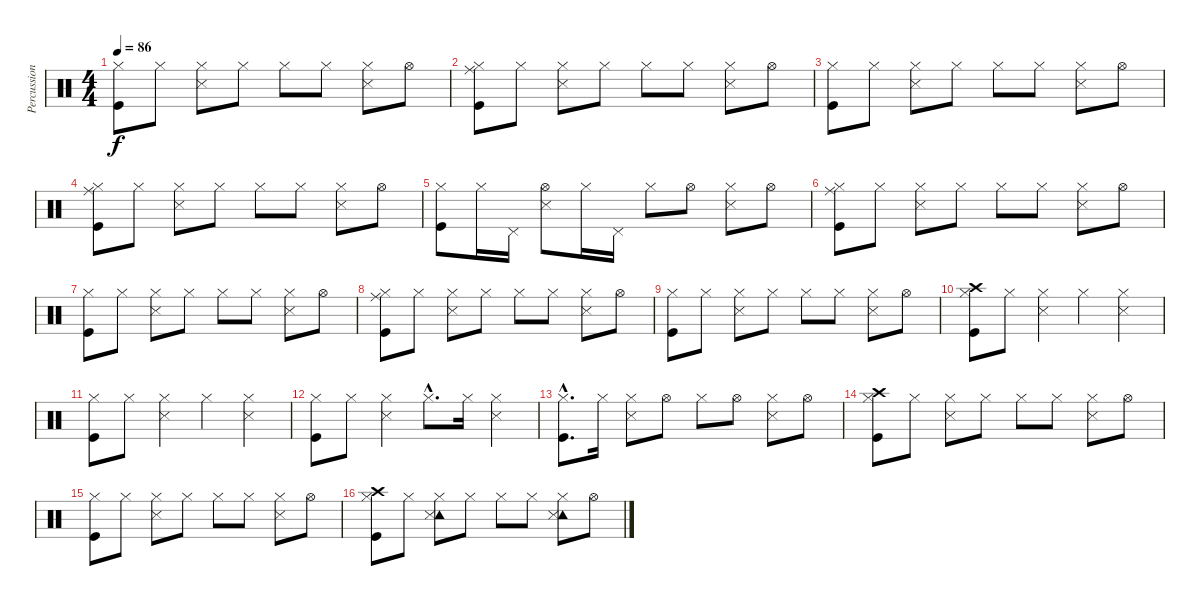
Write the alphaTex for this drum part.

\track ("Percussion" "Percussion") {instrument percussion}
\staff {score}
\articulation defaults
\ts (4 4)
\tempo 86
\clef neutral
\ks c
("Kick (hit)" "Hi-Hat (closed)").8{dy f} "Hi-Hat (closed)".8 ("Hi-Hat (closed)" "Snare (side stick) 3").8 "Hi-Hat (closed)".8 "Hi-Hat (closed)".8 "Hi-Hat (closed)".8 ("Hi-Hat (closed)" "Snare (side stick) 3").8 "Hi-Hat (open)".8 |
("Kick (hit)" "Ride (middle)" "Hi-Hat (closed)").8 "Hi-Hat (closed)".8 ("Hi-Hat (closed)" "Snare (side stick) 3").8 "Hi-Hat (closed)".8 "Hi-Hat (closed)".8 "Hi-Hat (closed)".8 ("Hi-Hat (closed)" "Snare (side stick) 3").8 "Hi-Hat (open)".8 |
("Kick (hit)" "Hi-Hat (closed)").8 "Hi-Hat (closed)".8 ("Hi-Hat (closed)" "Snare (side stick) 3").8 "Hi-Hat (closed)".8 "Hi-Hat (closed)".8 "Hi-Hat (closed)".8 ("Hi-Hat (closed)" "Snare (side stick) 3").8 "Hi-Hat (open)".8 |
("Kick (hit)" "Ride (middle)" "Hi-Hat (closed)").8 "Hi-Hat (closed)".8 ("Hi-Hat (closed)" "Snare (side stick) 3").8 "Hi-Hat (closed)".8 "Hi-Hat (closed)".8 "Hi-Hat (closed)".8 ("Hi-Hat (closed)" "Snare (side stick) 3").8 "Hi-Hat (open)".8 |
("Kick (hit)" "Hi-Hat (closed)").8 "Hi-Hat (closed)".16 "Pedal Hi-Hat (hit)".16 ("Hi-Hat (open)" "Snare (side stick) 3").8 "Hi-Hat (closed)".16 "Pedal Hi-Hat (hit)".16 "Hi-Hat (closed)".8 "Hi-Hat (open)".8 ("Hi-Hat (closed)" "Snare (side stick) 3").8 "Hi-Hat (open)".8 |
("Kick (hit)" "Ride (middle)" "Hi-Hat (closed)").8 "Hi-Hat (closed)".8 ("Hi-Hat (closed)" "Snare (side stick) 3").8 "Hi-Hat (closed)".8 "Hi-Hat (closed)".8 "Hi-Hat (closed)".8 ("Hi-Hat (closed)" "Snare (side stick) 3").8 "Hi-Hat (open)".8 |
("Kick (hit)" "Hi-Hat (closed)").8 "Hi-Hat (closed)".8 ("Hi-Hat (closed)" "Snare (side stick) 3").8 "Hi-Hat (closed)".8 "Hi-Hat (closed)".8 "Hi-Hat (closed)".8 ("Hi-Hat (closed)" "Snare (side stick) 3").8 "Hi-Hat (open)".8 |
("Kick (hit)" "Ride (middle)" "Hi-Hat (closed)").8 "Hi-Hat (closed)".8 ("Hi-Hat (closed)" "Snare (side stick) 3").8 "Hi-Hat (closed)".8 "Hi-Hat (closed)".8 "Hi-Hat (closed)".8 ("Hi-Hat (closed)" "Snare (side stick) 3").8 "Hi-Hat (open)".8 |
("Kick (hit)" "Hi-Hat (closed)").8 "Hi-Hat (closed)".8 ("Hi-Hat (closed)" "Snare (side stick) 3").8 "Hi-Hat (closed)".8 "Hi-Hat (closed)".8 "Hi-Hat (closed)".8 ("Hi-Hat (closed)" "Snare (side stick) 3").8 "Hi-Hat (open)".8 |
("Kick (hit)" "Crash high (hit)" "Hi-Hat (closed)").8 "Hi-Hat (closed)".8 ("Hi-Hat (closed)" "Snare (side stick) 3").4 "Hi-Hat (closed)".4 ("Hi-Hat (closed)" "Snare (side stick) 3").4 |
("Kick (hit)" "Hi-Hat (closed)").8 "Hi-Hat (closed)".8 ("Hi-Hat (closed)" "Snare (side stick) 3").4 "Hi-Hat (closed)".4 ("Hi-Hat (closed)" "Snare (side stick) 3").4 |
("Kick (hit)" "Hi-Hat (closed)").8 "Hi-Hat (closed)".8 ("Hi-Hat (closed)" "Snare (side stick) 3").4 "Hi-Hat (closed)"{hac}.8{d} "Hi-Hat (closed)".16 ("Hi-Hat (closed)" "Snare (side stick) 3").4 |
("Kick (hit)"{hac} "Hi-Hat (closed)"{hac}).8{d} "Hi-Hat (closed)".16 ("Hi-Hat (closed)" "Snare (side stick) 3").8 "Hi-Hat (open)".8 "Hi-Hat (closed)".8 "Hi-Hat (open)".8 ("Hi-Hat (closed)" "Snare (side stick) 3").8 "Hi-Hat (open)".8 |
("Kick (hit)" "Crash high (hit)" "Hi-Hat (closed)").8 "Hi-Hat (closed)".8 ("Hi-Hat (closed)" "Snare (side stick) 3").8 "Hi-Hat (closed)".8 "Hi-Hat (closed)".8 "Hi-Hat (closed)".8 ("Hi-Hat (closed)" "Snare (side stick) 3").8 "Hi-Hat (open)".8 |
("Kick (hit)" "Hi-Hat (closed)").8 "Hi-Hat (closed)".8 ("Hi-Hat (closed)" "Snare (side stick) 3").8 "Hi-Hat (closed)".8 "Hi-Hat (closed)".8 "Hi-Hat (closed)".8 ("Hi-Hat (closed)" "Snare (side stick) 3").8 "Hi-Hat (open)".8 |
("Kick (hit)" "Crash high (hit)" "Hi-Hat (closed)").8 "Hi-Hat (closed)".8 ("Tambourine (hit)" "Hi-Hat (closed)" "Snare (side stick) 3").8 "Hi-Hat (closed)".8 "Hi-Hat (closed)".8 "Hi-Hat (closed)".8 ("Hi-Hat (closed)" "Tambourine (hit)" "Snare (side stick) 3").8 "Hi-Hat (open)".8
